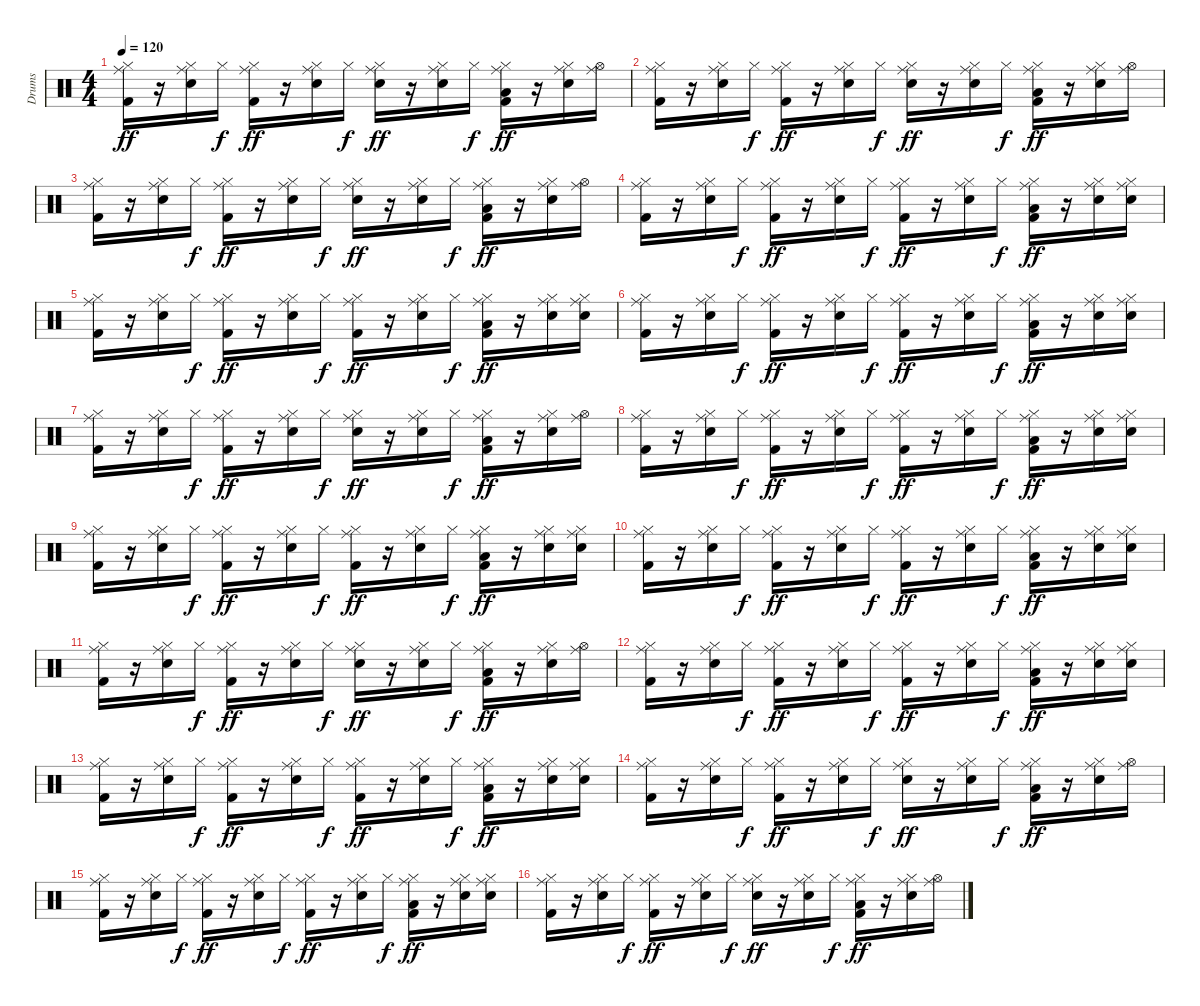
\track ("Drums" "Drums") {instrument percussion}
\staff {score}
\articulation defaults
\ts (4 4)
\tempo 120
\clef neutral
\ks c
("Hi-Hat (closed)" "Ride (middle)" "Kick (hit) 2").16{dy ff} r.16 ("Hi-Hat (closed)" "Snare (hit) 2" "Ride (middle)").16 "Hi-Hat (closed)".16{dy f} ("Hi-Hat (closed)" "Ride (middle)" "Kick (hit) 2").16{dy ff} r.16 ("Hi-Hat (closed)" "Snare (hit) 2" "Ride (middle)").16 "Hi-Hat (closed)".16{dy f} ("Hi-Hat (closed)" "Snare (hit) 2" "Ride (middle)").16{dy ff} r.16 ("Hi-Hat (closed)" "Snare (hit) 2" "Ride (middle)").16 "Hi-Hat (closed)".16{dy f} ("Hi-Hat (closed)" "Ride (middle)" "Low Floor Tom (hit)" "Kick (hit) 2").16{dy ff} r.16 ("Hi-Hat (closed)" "Snare (hit) 2" "Ride (middle)").16 ("Hi-Hat (open)" "Ride (middle)").16 |
("Hi-Hat (closed)" "Ride (middle)" "Kick (hit) 2").16 r.16 ("Hi-Hat (closed)" "Snare (hit) 2" "Ride (middle)").16 "Hi-Hat (closed)".16{dy f} ("Hi-Hat (closed)" "Ride (middle)" "Kick (hit) 2").16{dy ff} r.16 ("Hi-Hat (closed)" "Snare (hit) 2" "Ride (middle)").16 "Hi-Hat (closed)".16{dy f} ("Hi-Hat (closed)" "Snare (hit) 2" "Ride (middle)").16{dy ff} r.16 ("Hi-Hat (closed)" "Snare (hit) 2" "Ride (middle)").16 "Hi-Hat (closed)".16{dy f} ("Hi-Hat (closed)" "Ride (middle)" "Low Floor Tom (hit)" "Kick (hit) 2").16{dy ff} r.16 ("Hi-Hat (closed)" "Snare (hit) 2" "Ride (middle)").16 ("Hi-Hat (open)" "Ride (middle)").16 |
("Hi-Hat (closed)" "Ride (middle)" "Kick (hit) 2").16 r.16 ("Hi-Hat (closed)" "Snare (hit) 2" "Ride (middle)").16 "Hi-Hat (closed)".16{dy f} ("Hi-Hat (closed)" "Ride (middle)" "Kick (hit) 2").16{dy ff} r.16 ("Hi-Hat (closed)" "Snare (hit) 2" "Ride (middle)").16 "Hi-Hat (closed)".16{dy f} ("Hi-Hat (closed)" "Snare (hit) 2" "Ride (middle)").16{dy ff} r.16 ("Hi-Hat (closed)" "Snare (hit) 2" "Ride (middle)").16 "Hi-Hat (closed)".16{dy f} ("Hi-Hat (closed)" "Ride (middle)" "Low Floor Tom (hit)" "Kick (hit) 2").16{dy ff} r.16 ("Hi-Hat (closed)" "Snare (hit) 2" "Ride (middle)").16 ("Hi-Hat (open)" "Ride (middle)").16 |
("Hi-Hat (closed)" "Ride (middle)" "Kick (hit) 2").16 r.16 ("Hi-Hat (closed)" "Snare (hit) 2" "Ride (middle)").16 "Hi-Hat (closed)".16{dy f} ("Hi-Hat (closed)" "Ride (middle)" "Kick (hit) 2").16{dy ff} r.16 ("Hi-Hat (closed)" "Snare (hit) 2" "Ride (middle)").16 "Hi-Hat (closed)".16{dy f} ("Hi-Hat (closed)" "Ride (middle)" "Kick (hit) 2").16{dy ff} r.16 ("Hi-Hat (closed)" "Snare (hit) 2" "Ride (middle)").16 "Hi-Hat (closed)".16{dy f} ("Hi-Hat (closed)" "Ride (middle)" "Low Floor Tom (hit)" "Kick (hit) 2").16{dy ff} r.16 ("Hi-Hat (closed)" "Snare (hit) 2" "Ride (middle)").16 ("Hi-Hat (closed)" "Snare (hit) 2" "Ride (middle)").16 |
("Hi-Hat (closed)" "Ride (middle)" "Kick (hit) 2").16 r.16 ("Hi-Hat (closed)" "Snare (hit) 2" "Ride (middle)").16 "Hi-Hat (closed)".16{dy f} ("Hi-Hat (closed)" "Ride (middle)" "Kick (hit) 2").16{dy ff} r.16 ("Hi-Hat (closed)" "Snare (hit) 2" "Ride (middle)").16 "Hi-Hat (closed)".16{dy f} ("Hi-Hat (closed)" "Ride (middle)" "Kick (hit) 2").16{dy ff} r.16 ("Hi-Hat (closed)" "Snare (hit) 2" "Ride (middle)").16 "Hi-Hat (closed)".16{dy f} ("Hi-Hat (closed)" "Ride (middle)" "Low Floor Tom (hit)" "Kick (hit) 2").16{dy ff} r.16 ("Hi-Hat (closed)" "Snare (hit) 2" "Ride (middle)").16 ("Hi-Hat (closed)" "Snare (hit) 2" "Ride (middle)").16 |
("Hi-Hat (closed)" "Ride (middle)" "Kick (hit) 2").16 r.16 ("Hi-Hat (closed)" "Snare (hit) 2" "Ride (middle)").16 "Hi-Hat (closed)".16{dy f} ("Hi-Hat (closed)" "Ride (middle)" "Kick (hit) 2").16{dy ff} r.16 ("Hi-Hat (closed)" "Snare (hit) 2" "Ride (middle)").16 "Hi-Hat (closed)".16{dy f} ("Hi-Hat (closed)" "Ride (middle)" "Kick (hit) 2").16{dy ff} r.16 ("Hi-Hat (closed)" "Snare (hit) 2" "Ride (middle)").16 "Hi-Hat (closed)".16{dy f} ("Hi-Hat (closed)" "Ride (middle)" "Low Floor Tom (hit)" "Kick (hit) 2").16{dy ff} r.16 ("Hi-Hat (closed)" "Snare (hit) 2" "Ride (middle)").16 ("Hi-Hat (closed)" "Snare (hit) 2" "Ride (middle)").16 |
("Hi-Hat (closed)" "Ride (middle)" "Kick (hit) 2").16 r.16 ("Hi-Hat (closed)" "Snare (hit) 2" "Ride (middle)").16 "Hi-Hat (closed)".16{dy f} ("Hi-Hat (closed)" "Ride (middle)" "Kick (hit) 2").16{dy ff} r.16 ("Hi-Hat (closed)" "Snare (hit) 2" "Ride (middle)").16 "Hi-Hat (closed)".16{dy f} ("Hi-Hat (closed)" "Snare (hit) 2" "Ride (middle)").16{dy ff} r.16 ("Hi-Hat (closed)" "Snare (hit) 2" "Ride (middle)").16 "Hi-Hat (closed)".16{dy f} ("Hi-Hat (closed)" "Ride (middle)" "Low Floor Tom (hit)" "Kick (hit) 2").16{dy ff} r.16 ("Hi-Hat (closed)" "Snare (hit) 2" "Ride (middle)").16 ("Hi-Hat (open)" "Ride (middle)").16 |
("Hi-Hat (closed)" "Ride (middle)" "Kick (hit) 2").16 r.16 ("Hi-Hat (closed)" "Snare (hit) 2" "Ride (middle)").16 "Hi-Hat (closed)".16{dy f} ("Hi-Hat (closed)" "Ride (middle)" "Kick (hit) 2").16{dy ff} r.16 ("Hi-Hat (closed)" "Snare (hit) 2" "Ride (middle)").16 "Hi-Hat (closed)".16{dy f} ("Hi-Hat (closed)" "Ride (middle)" "Kick (hit) 2").16{dy ff} r.16 ("Hi-Hat (closed)" "Snare (hit) 2" "Ride (middle)").16 "Hi-Hat (closed)".16{dy f} ("Hi-Hat (closed)" "Ride (middle)" "Low Floor Tom (hit)" "Kick (hit) 2").16{dy ff} r.16 ("Hi-Hat (closed)" "Snare (hit) 2" "Ride (middle)").16 ("Hi-Hat (closed)" "Snare (hit) 2" "Ride (middle)").16 |
("Hi-Hat (closed)" "Ride (middle)" "Kick (hit) 2").16 r.16 ("Hi-Hat (closed)" "Snare (hit) 2" "Ride (middle)").16 "Hi-Hat (closed)".16{dy f} ("Hi-Hat (closed)" "Ride (middle)" "Kick (hit) 2").16{dy ff} r.16 ("Hi-Hat (closed)" "Snare (hit) 2" "Ride (middle)").16 "Hi-Hat (closed)".16{dy f} ("Hi-Hat (closed)" "Ride (middle)" "Kick (hit) 2").16{dy ff} r.16 ("Hi-Hat (closed)" "Snare (hit) 2" "Ride (middle)").16 "Hi-Hat (closed)".16{dy f} ("Hi-Hat (closed)" "Ride (middle)" "Low Floor Tom (hit)" "Kick (hit) 2").16{dy ff} r.16 ("Hi-Hat (closed)" "Snare (hit) 2" "Ride (middle)").16 ("Hi-Hat (closed)" "Snare (hit) 2" "Ride (middle)").16 |
("Hi-Hat (closed)" "Ride (middle)" "Kick (hit) 2").16 r.16 ("Hi-Hat (closed)" "Snare (hit) 2" "Ride (middle)").16 "Hi-Hat (closed)".16{dy f} ("Hi-Hat (closed)" "Ride (middle)" "Kick (hit) 2").16{dy ff} r.16 ("Hi-Hat (closed)" "Snare (hit) 2" "Ride (middle)").16 "Hi-Hat (closed)".16{dy f} ("Hi-Hat (closed)" "Ride (middle)" "Kick (hit) 2").16{dy ff} r.16 ("Hi-Hat (closed)" "Snare (hit) 2" "Ride (middle)").16 "Hi-Hat (closed)".16{dy f} ("Hi-Hat (closed)" "Ride (middle)" "Low Floor Tom (hit)" "Kick (hit) 2").16{dy ff} r.16 ("Hi-Hat (closed)" "Snare (hit) 2" "Ride (middle)").16 ("Hi-Hat (closed)" "Snare (hit) 2" "Ride (middle)").16 |
("Hi-Hat (closed)" "Ride (middle)" "Kick (hit) 2").16 r.16 ("Hi-Hat (closed)" "Snare (hit) 2" "Ride (middle)").16 "Hi-Hat (closed)".16{dy f} ("Hi-Hat (closed)" "Ride (middle)" "Kick (hit) 2").16{dy ff} r.16 ("Hi-Hat (closed)" "Snare (hit) 2" "Ride (middle)").16 "Hi-Hat (closed)".16{dy f} ("Hi-Hat (closed)" "Snare (hit) 2" "Ride (middle)").16{dy ff} r.16 ("Hi-Hat (closed)" "Snare (hit) 2" "Ride (middle)").16 "Hi-Hat (closed)".16{dy f} ("Hi-Hat (closed)" "Ride (middle)" "Low Floor Tom (hit)" "Kick (hit) 2").16{dy ff} r.16 ("Hi-Hat (closed)" "Snare (hit) 2" "Ride (middle)").16 ("Hi-Hat (open)" "Ride (middle)").16 |
("Hi-Hat (closed)" "Ride (middle)" "Kick (hit) 2").16 r.16 ("Hi-Hat (closed)" "Snare (hit) 2" "Ride (middle)").16 "Hi-Hat (closed)".16{dy f} ("Hi-Hat (closed)" "Ride (middle)" "Kick (hit) 2").16{dy ff} r.16 ("Hi-Hat (closed)" "Snare (hit) 2" "Ride (middle)").16 "Hi-Hat (closed)".16{dy f} ("Hi-Hat (closed)" "Ride (middle)" "Kick (hit) 2").16{dy ff} r.16 ("Hi-Hat (closed)" "Snare (hit) 2" "Ride (middle)").16 "Hi-Hat (closed)".16{dy f} ("Hi-Hat (closed)" "Ride (middle)" "Low Floor Tom (hit)" "Kick (hit) 2").16{dy ff} r.16 ("Hi-Hat (closed)" "Snare (hit) 2" "Ride (middle)").16 ("Hi-Hat (closed)" "Snare (hit) 2" "Ride (middle)").16 |
("Hi-Hat (closed)" "Ride (middle)" "Kick (hit) 2").16 r.16 ("Hi-Hat (closed)" "Snare (hit) 2" "Ride (middle)").16 "Hi-Hat (closed)".16{dy f} ("Hi-Hat (closed)" "Ride (middle)" "Kick (hit) 2").16{dy ff} r.16 ("Hi-Hat (closed)" "Snare (hit) 2" "Ride (middle)").16 "Hi-Hat (closed)".16{dy f} ("Hi-Hat (closed)" "Ride (middle)" "Kick (hit) 2").16{dy ff} r.16 ("Hi-Hat (closed)" "Snare (hit) 2" "Ride (middle)").16 "Hi-Hat (closed)".16{dy f} ("Hi-Hat (closed)" "Ride (middle)" "Low Floor Tom (hit)" "Kick (hit) 2").16{dy ff} r.16 ("Hi-Hat (closed)" "Snare (hit) 2" "Ride (middle)").16 ("Hi-Hat (closed)" "Snare (hit) 2" "Ride (middle)").16 |
("Hi-Hat (closed)" "Ride (middle)" "Kick (hit) 2").16 r.16 ("Hi-Hat (closed)" "Snare (hit) 2" "Ride (middle)").16 "Hi-Hat (closed)".16{dy f} ("Hi-Hat (closed)" "Ride (middle)" "Kick (hit) 2").16{dy ff} r.16 ("Hi-Hat (closed)" "Snare (hit) 2" "Ride (middle)").16 "Hi-Hat (closed)".16{dy f} ("Hi-Hat (closed)" "Snare (hit) 2" "Ride (middle)").16{dy ff} r.16 ("Hi-Hat (closed)" "Snare (hit) 2" "Ride (middle)").16 "Hi-Hat (closed)".16{dy f} ("Hi-Hat (closed)" "Ride (middle)" "Low Floor Tom (hit)" "Kick (hit) 2").16{dy ff} r.16 ("Hi-Hat (closed)" "Snare (hit) 2" "Ride (middle)").16 ("Hi-Hat (open)" "Ride (middle)").16 |
("Hi-Hat (closed)" "Ride (middle)" "Kick (hit) 2").16 r.16 ("Hi-Hat (closed)" "Snare (hit) 2" "Ride (middle)").16 "Hi-Hat (closed)".16{dy f} ("Hi-Hat (closed)" "Ride (middle)" "Kick (hit) 2").16{dy ff} r.16 ("Hi-Hat (closed)" "Snare (hit) 2" "Ride (middle)").16 "Hi-Hat (closed)".16{dy f} ("Hi-Hat (closed)" "Ride (middle)" "Kick (hit) 2").16{dy ff} r.16 ("Hi-Hat (closed)" "Snare (hit) 2" "Ride (middle)").16 "Hi-Hat (closed)".16{dy f} ("Hi-Hat (closed)" "Ride (middle)" "Low Floor Tom (hit)" "Kick (hit) 2").16{dy ff} r.16 ("Hi-Hat (closed)" "Snare (hit) 2" "Ride (middle)").16 ("Hi-Hat (closed)" "Snare (hit) 2" "Ride (middle)").16 |
("Hi-Hat (closed)" "Ride (middle)" "Kick (hit) 2").16 r.16 ("Hi-Hat (closed)" "Snare (hit) 2" "Ride (middle)").16 "Hi-Hat (closed)".16{dy f} ("Hi-Hat (closed)" "Ride (middle)" "Kick (hit) 2").16{dy ff} r.16 ("Hi-Hat (closed)" "Snare (hit) 2" "Ride (middle)").16 "Hi-Hat (closed)".16{dy f} ("Hi-Hat (closed)" "Snare (hit) 2" "Ride (middle)").16{dy ff} r.16 ("Hi-Hat (closed)" "Snare (hit) 2" "Ride (middle)").16 "Hi-Hat (closed)".16{dy f} ("Hi-Hat (closed)" "Ride (middle)" "Low Floor Tom (hit)" "Kick (hit) 2").16{dy ff} r.16 ("Hi-Hat (closed)" "Snare (hit) 2" "Ride (middle)").16 ("Hi-Hat (open)" "Ride (middle)").16
